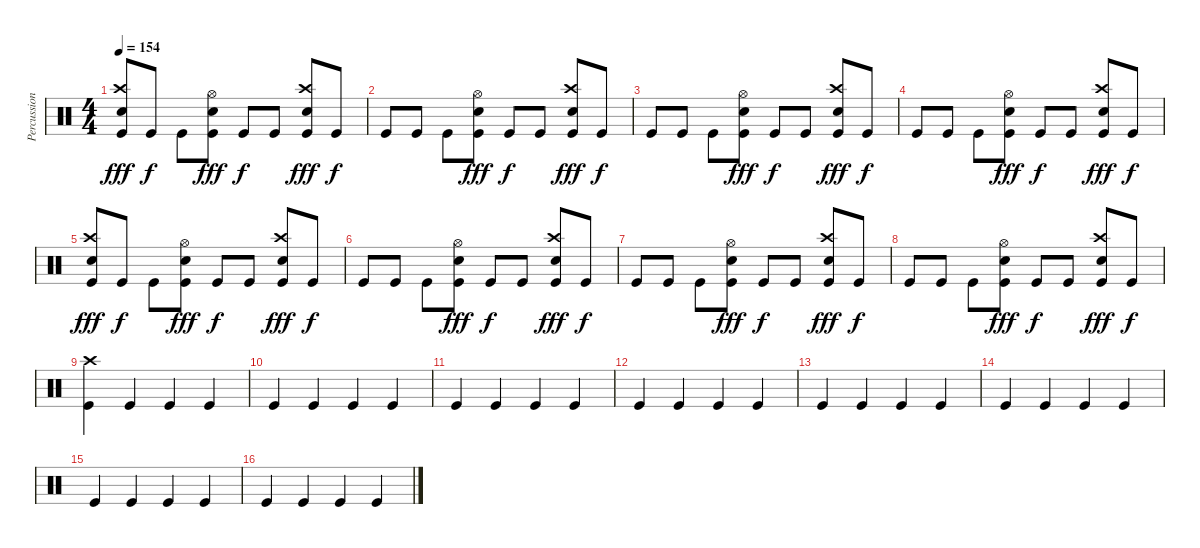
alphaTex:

\track ("Percussion" "Percussion") {instrument percussion}
\staff {score}
\articulation defaults
\ts (4 4)
\tempo 154
\clef neutral
\ks c
("Kick (hit)" "Crash high (hit)" "Electric Snare (hit)").8{dy fff} "Kick (hit)".8{dy f} "Kick (hit)".8 ("Kick (hit)" "Electric Snare (hit)" "Hi-Hat (open)").8{dy fff} "Kick (hit)".8{dy f} "Kick (hit)".8 ("Electric Snare (hit)" "Kick (hit)" "Crash high (hit)").8{dy fff} "Kick (hit)".8{dy f} |
"Kick (hit)".8 "Kick (hit)".8 "Kick (hit)".8 ("Kick (hit)" "Electric Snare (hit)" "Hi-Hat (open)").8{dy fff} "Kick (hit)".8{dy f} "Kick (hit)".8 ("Kick (hit)" "Electric Snare (hit)" "Crash high (hit)").8{dy fff} "Kick (hit)".8{dy f} |
"Kick (hit)".8 "Kick (hit)".8 "Kick (hit)".8 ("Kick (hit)" "Electric Snare (hit)" "Hi-Hat (open)").8{dy fff} "Kick (hit)".8{dy f} "Kick (hit)".8 ("Kick (hit)" "Electric Snare (hit)" "Crash high (hit)").8{dy fff} "Kick (hit)".8{dy f} |
"Kick (hit)".8 "Kick (hit)".8 "Kick (hit)".8 ("Kick (hit)" "Electric Snare (hit)" "Hi-Hat (open)").8{dy fff} "Kick (hit)".8{dy f} "Kick (hit)".8 ("Kick (hit)" "Electric Snare (hit)" "Crash high (hit)").8{dy fff} "Kick (hit)".8{dy f} |
("Kick (hit)" "Crash high (hit)" "Electric Snare (hit)").8{dy fff} "Kick (hit)".8{dy f} "Kick (hit)".8 ("Kick (hit)" "Electric Snare (hit)" "Hi-Hat (open)").8{dy fff} "Kick (hit)".8{dy f} "Kick (hit)".8 ("Electric Snare (hit)" "Kick (hit)" "Crash high (hit)").8{dy fff} "Kick (hit)".8{dy f} |
"Kick (hit)".8 "Kick (hit)".8 "Kick (hit)".8 ("Kick (hit)" "Electric Snare (hit)" "Hi-Hat (open)").8{dy fff} "Kick (hit)".8{dy f} "Kick (hit)".8 ("Kick (hit)" "Electric Snare (hit)" "Crash high (hit)").8{dy fff} "Kick (hit)".8{dy f} |
"Kick (hit)".8 "Kick (hit)".8 "Kick (hit)".8 ("Kick (hit)" "Electric Snare (hit)" "Hi-Hat (open)").8{dy fff} "Kick (hit)".8{dy f} "Kick (hit)".8 ("Kick (hit)" "Electric Snare (hit)" "Crash high (hit)").8{dy fff} "Kick (hit)".8{dy f} |
"Kick (hit)".8 "Kick (hit)".8 "Kick (hit)".8 ("Kick (hit)" "Electric Snare (hit)" "Hi-Hat (open)").8{dy fff} "Kick (hit)".8{dy f} "Kick (hit)".8 ("Kick (hit)" "Electric Snare (hit)" "Crash high (hit)").8{dy fff} "Kick (hit)".8{dy f} |
("Crash high (hit)" "Kick (hit)").4 "Kick (hit)".4 "Kick (hit)".4 "Kick (hit)".4 |
"Kick (hit)".4 "Kick (hit)".4 "Kick (hit)".4 "Kick (hit)".4 |
"Kick (hit)".4 "Kick (hit)".4 "Kick (hit)".4 "Kick (hit)".4 |
"Kick (hit)".4 "Kick (hit)".4 "Kick (hit)".4 "Kick (hit)".4 |
"Kick (hit)".4 "Kick (hit)".4 "Kick (hit)".4 "Kick (hit)".4 |
"Kick (hit)".4 "Kick (hit)".4 "Kick (hit)".4 "Kick (hit)".4 |
"Kick (hit)".4 "Kick (hit)".4 "Kick (hit)".4 "Kick (hit)".4 |
"Kick (hit)".4 "Kick (hit)".4 "Kick (hit)".4 "Kick (hit)".4
